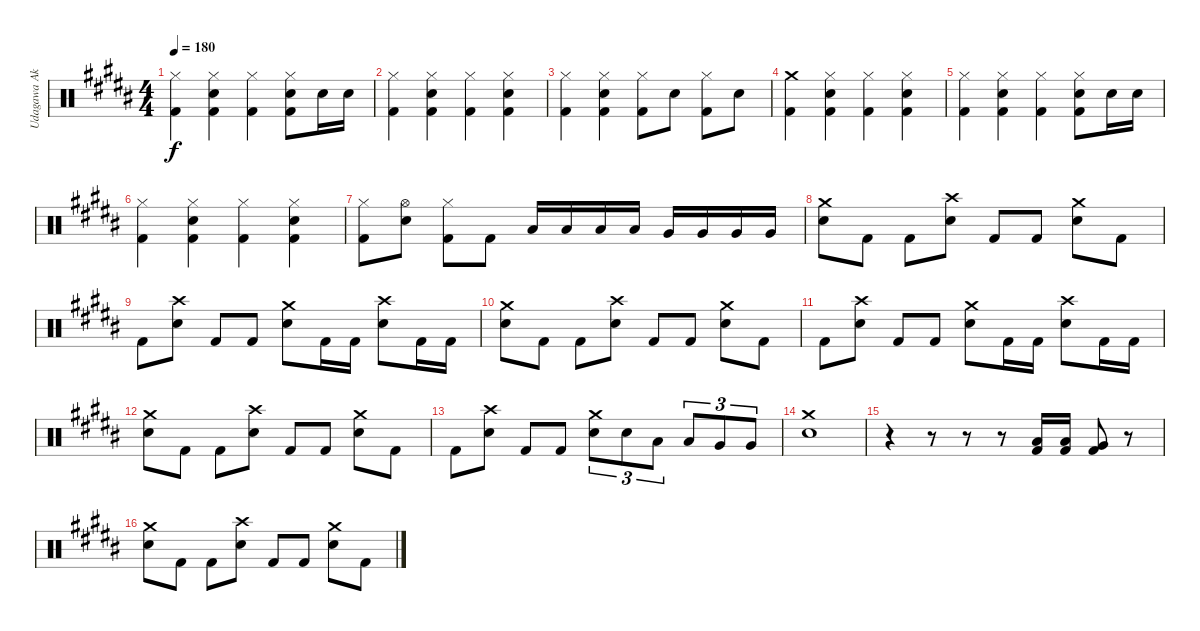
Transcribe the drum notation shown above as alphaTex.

\track ("Udagawa Ako" "Udagawa Ak") {instrument percussion}
\staff {score}
\articulation defaults
\ts (4 4)
\tempo 180
\clef neutral
\ks b
("Hi-Hat (closed)" "Kick (hit) 2").4{dy f} ("Hi-Hat (closed)" "Electric Snare (hit)" "Kick (hit) 2").4 ("Hi-Hat (closed)" "Kick (hit) 2").4 ("Hi-Hat (closed)" "Electric Snare (hit)" "Kick (hit) 2").8 "Electric Snare (hit)".16 "Electric Snare (hit)".16 |
("Hi-Hat (closed)" "Kick (hit) 2").4 ("Hi-Hat (closed)" "Electric Snare (hit)" "Kick (hit) 2").4 ("Hi-Hat (closed)" "Kick (hit) 2").4 ("Hi-Hat (closed)" "Electric Snare (hit)" "Kick (hit) 2").4 |
("Hi-Hat (closed)" "Kick (hit) 2").4 ("Hi-Hat (closed)" "Electric Snare (hit)" "Kick (hit) 2").4 ("Hi-Hat (closed)" "Kick (hit) 2").8 "Electric Snare (hit)".8 ("Hi-Hat (closed)" "Kick (hit) 2").8 "Electric Snare (hit)".8 |
("Crash medium (hit)" "Kick (hit) 2").4 ("Hi-Hat (closed)" "Electric Snare (hit)" "Kick (hit) 2").4 ("Hi-Hat (closed)" "Kick (hit) 2").4 ("Hi-Hat (closed)" "Electric Snare (hit)" "Kick (hit) 2").4 |
("Hi-Hat (closed)" "Kick (hit) 2").4 ("Hi-Hat (closed)" "Electric Snare (hit)" "Kick (hit) 2").4 ("Hi-Hat (closed)" "Kick (hit) 2").4 ("Hi-Hat (closed)" "Electric Snare (hit)" "Kick (hit) 2").8 "Electric Snare (hit)".16 "Electric Snare (hit)".16 |
("Hi-Hat (closed)" "Kick (hit) 2").4 ("Hi-Hat (closed)" "Electric Snare (hit)" "Kick (hit) 2").4 ("Hi-Hat (closed)" "Kick (hit) 2").4 ("Hi-Hat (closed)" "Electric Snare (hit)" "Kick (hit) 2").4 |
("Hi-Hat (closed)" "Kick (hit) 2").8 ("Hi-Hat (open)" "Electric Snare (hit)").8 ("Hi-Hat (closed)" "Kick (hit) 2").8 "Kick (hit) 2".8 "Low Tom (hit)".16 "Low Tom (hit)".16 "Low Tom (hit)".16 "Low Tom (hit)".16 "Very Low Tom (hit)".16 "Very Low Tom (hit)".16 "Very Low Tom (hit)".16 "Very Low Tom (hit)".16 |
("Crash medium (hit)" "Electric Snare (hit)").8 "Kick (hit) 2".8 "Kick (hit) 2".8 ("Crash high (hit)" "Electric Snare (hit)").8 "Kick (hit) 2".8 "Kick (hit) 2".8 ("Crash medium (hit)" "Electric Snare (hit)").8 "Kick (hit) 2".8 |
"Kick (hit) 2".8 ("Crash high (hit)" "Electric Snare (hit)").8 "Kick (hit) 2".8 "Kick (hit) 2".8 ("Crash medium (hit)" "Electric Snare (hit)").8 "Kick (hit) 2".16 "Kick (hit) 2".16 ("Crash high (hit)" "Electric Snare (hit)").8 "Kick (hit) 2".16 "Kick (hit) 2".16 |
("Crash medium (hit)" "Electric Snare (hit)").8 "Kick (hit) 2".8 "Kick (hit) 2".8 ("Crash high (hit)" "Electric Snare (hit)").8 "Kick (hit) 2".8 "Kick (hit) 2".8 ("Crash medium (hit)" "Electric Snare (hit)").8 "Kick (hit) 2".8 |
"Kick (hit) 2".8 ("Crash high (hit)" "Electric Snare (hit)").8 "Kick (hit) 2".8 "Kick (hit) 2".8 ("Crash medium (hit)" "Electric Snare (hit)").8 "Kick (hit) 2".16 "Kick (hit) 2".16 ("Crash high (hit)" "Electric Snare (hit)").8 "Kick (hit) 2".16 "Kick (hit) 2".16 |
("Crash medium (hit)" "Electric Snare (hit)").8 "Kick (hit) 2".8 "Kick (hit) 2".8 ("Crash high (hit)" "Electric Snare (hit)").8 "Kick (hit) 2".8 "Kick (hit) 2".8 ("Crash medium (hit)" "Electric Snare (hit)").8 "Kick (hit) 2".8 |
"Kick (hit) 2".8 ("Crash high (hit)" "Electric Snare (hit)").8 "Kick (hit) 2".8 "Kick (hit) 2".8 ("Crash medium (hit)" "Electric Snare (hit)").8{tu (3 2)} "Electric Snare (hit)".8{tu (3 2)} "Low Tom (hit)".8{tu (3 2)} "Low Tom (hit)".8{tu (3 2)} "Very Low Tom (hit)".8{tu (3 2)} "Very Low Tom (hit)".8{tu (3 2)} |
("Crash medium (hit)" "Electric Snare (hit)").1 |
r.4 r.8 r.8 r.8 ("Low Tom (hit)" "Kick (hit) 2").16 ("Low Tom (hit)" "Kick (hit) 2").16 ("Very Low Tom (hit)" "Kick (hit) 2").8 r.8 |
("Crash medium (hit)" "Electric Snare (hit)").8 "Kick (hit) 2".8 "Kick (hit) 2".8 ("Crash high (hit)" "Electric Snare (hit)").8 "Kick (hit) 2".8 "Kick (hit) 2".8 ("Crash medium (hit)" "Electric Snare (hit)").8 "Kick (hit) 2".8
